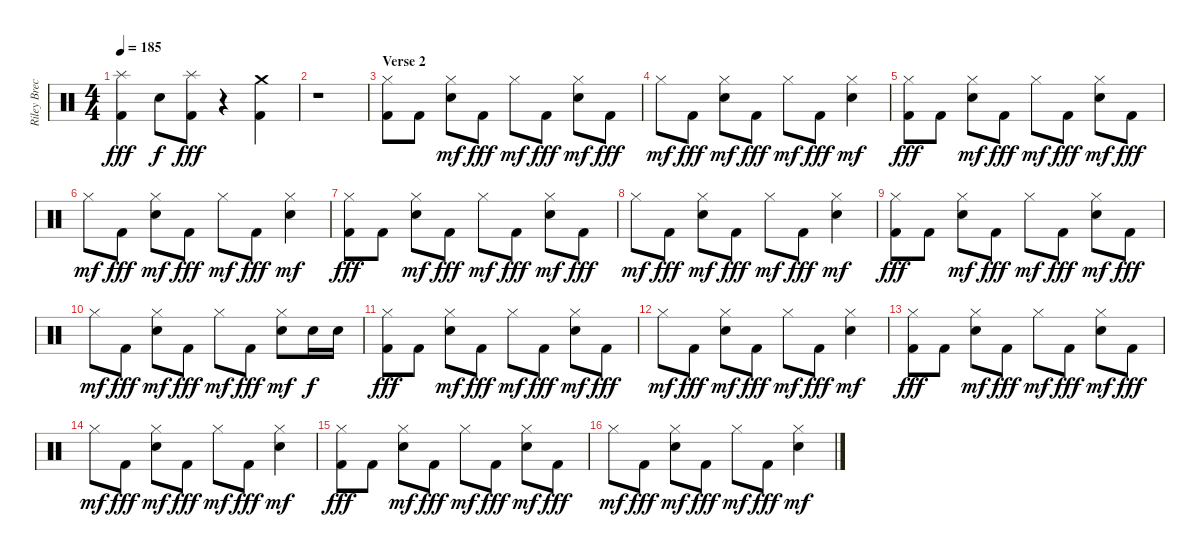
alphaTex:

\track ("Riley Breckenridge (Drums)" "Riley Brec") {instrument percussion}
\staff {score}
\articulation defaults
\ts (4 4)
\tempo 185
\clef neutral
\ks c
("Splash (hit)" "Kick (hit) 2").4{dy fff} "Electric Snare (hit)".8{dy f} ("Splash (hit)" "Kick (hit) 2").8{dy fff} r.4 ("Crash medium (hit)" "Kick (hit) 2").4 |
r.1 |
\section ("" "Verse 2")
("Hi-Hat (closed)" "Kick (hit) 2").8 "Kick (hit) 2".8 ("Hi-Hat (closed)" "Electric Snare (hit)").8{dy mf} "Kick (hit) 2".8{dy fff} "Hi-Hat (closed)".8{dy mf} "Kick (hit) 2".8{dy fff} ("Hi-Hat (closed)" "Electric Snare (hit)").8{dy mf} "Kick (hit) 2".8{dy fff} |
"Hi-Hat (closed)".8{dy mf} "Kick (hit) 2".8{dy fff} ("Hi-Hat (closed)" "Electric Snare (hit)").8{dy mf} "Kick (hit) 2".8{dy fff} "Hi-Hat (closed)".8{dy mf} "Kick (hit) 2".8{dy fff} ("Hi-Hat (closed)" "Electric Snare (hit)").4{dy mf} |
("Hi-Hat (closed)" "Kick (hit) 2").8{dy fff} "Kick (hit) 2".8 ("Hi-Hat (closed)" "Electric Snare (hit)").8{dy mf} "Kick (hit) 2".8{dy fff} "Hi-Hat (closed)".8{dy mf} "Kick (hit) 2".8{dy fff} ("Hi-Hat (closed)" "Electric Snare (hit)").8{dy mf} "Kick (hit) 2".8{dy fff} |
"Hi-Hat (closed)".8{dy mf} "Kick (hit) 2".8{dy fff} ("Hi-Hat (closed)" "Electric Snare (hit)").8{dy mf} "Kick (hit) 2".8{dy fff} "Hi-Hat (closed)".8{dy mf} "Kick (hit) 2".8{dy fff} ("Hi-Hat (closed)" "Electric Snare (hit)").4{dy mf} |
("Hi-Hat (closed)" "Kick (hit) 2").8{dy fff} "Kick (hit) 2".8 ("Hi-Hat (closed)" "Electric Snare (hit)").8{dy mf} "Kick (hit) 2".8{dy fff} "Hi-Hat (closed)".8{dy mf} "Kick (hit) 2".8{dy fff} ("Hi-Hat (closed)" "Electric Snare (hit)").8{dy mf} "Kick (hit) 2".8{dy fff} |
"Hi-Hat (closed)".8{dy mf} "Kick (hit) 2".8{dy fff} ("Hi-Hat (closed)" "Electric Snare (hit)").8{dy mf} "Kick (hit) 2".8{dy fff} "Hi-Hat (closed)".8{dy mf} "Kick (hit) 2".8{dy fff} ("Hi-Hat (closed)" "Electric Snare (hit)").4{dy mf} |
("Hi-Hat (closed)" "Kick (hit) 2").8{dy fff} "Kick (hit) 2".8 ("Hi-Hat (closed)" "Electric Snare (hit)").8{dy mf} "Kick (hit) 2".8{dy fff} "Hi-Hat (closed)".8{dy mf} "Kick (hit) 2".8{dy fff} ("Hi-Hat (closed)" "Electric Snare (hit)").8{dy mf} "Kick (hit) 2".8{dy fff} |
"Hi-Hat (closed)".8{dy mf} "Kick (hit) 2".8{dy fff} ("Hi-Hat (closed)" "Electric Snare (hit)").8{dy mf} "Kick (hit) 2".8{dy fff} "Hi-Hat (closed)".8{dy mf} "Kick (hit) 2".8{dy fff} ("Hi-Hat (closed)" "Electric Snare (hit)").8{dy mf} "Electric Snare (hit)".16{dy f} "Electric Snare (hit)".16 |
("Hi-Hat (closed)" "Kick (hit) 2").8{dy fff} "Kick (hit) 2".8 ("Hi-Hat (closed)" "Electric Snare (hit)").8{dy mf} "Kick (hit) 2".8{dy fff} "Hi-Hat (closed)".8{dy mf} "Kick (hit) 2".8{dy fff} ("Hi-Hat (closed)" "Electric Snare (hit)").8{dy mf} "Kick (hit) 2".8{dy fff} |
"Hi-Hat (closed)".8{dy mf} "Kick (hit) 2".8{dy fff} ("Hi-Hat (closed)" "Electric Snare (hit)").8{dy mf} "Kick (hit) 2".8{dy fff} "Hi-Hat (closed)".8{dy mf} "Kick (hit) 2".8{dy fff} ("Hi-Hat (closed)" "Electric Snare (hit)").4{dy mf} |
("Hi-Hat (closed)" "Kick (hit) 2").8{dy fff} "Kick (hit) 2".8 ("Hi-Hat (closed)" "Electric Snare (hit)").8{dy mf} "Kick (hit) 2".8{dy fff} "Hi-Hat (closed)".8{dy mf} "Kick (hit) 2".8{dy fff} ("Hi-Hat (closed)" "Electric Snare (hit)").8{dy mf} "Kick (hit) 2".8{dy fff} |
"Hi-Hat (closed)".8{dy mf} "Kick (hit) 2".8{dy fff} ("Hi-Hat (closed)" "Electric Snare (hit)").8{dy mf} "Kick (hit) 2".8{dy fff} "Hi-Hat (closed)".8{dy mf} "Kick (hit) 2".8{dy fff} ("Hi-Hat (closed)" "Electric Snare (hit)").4{dy mf} |
("Hi-Hat (closed)" "Kick (hit) 2").8{dy fff} "Kick (hit) 2".8 ("Hi-Hat (closed)" "Electric Snare (hit)").8{dy mf} "Kick (hit) 2".8{dy fff} "Hi-Hat (closed)".8{dy mf} "Kick (hit) 2".8{dy fff} ("Hi-Hat (closed)" "Electric Snare (hit)").8{dy mf} "Kick (hit) 2".8{dy fff} |
"Hi-Hat (closed)".8{dy mf} "Kick (hit) 2".8{dy fff} ("Hi-Hat (closed)" "Electric Snare (hit)").8{dy mf} "Kick (hit) 2".8{dy fff} "Hi-Hat (closed)".8{dy mf} "Kick (hit) 2".8{dy fff} ("Hi-Hat (closed)" "Electric Snare (hit)").4{dy mf}
